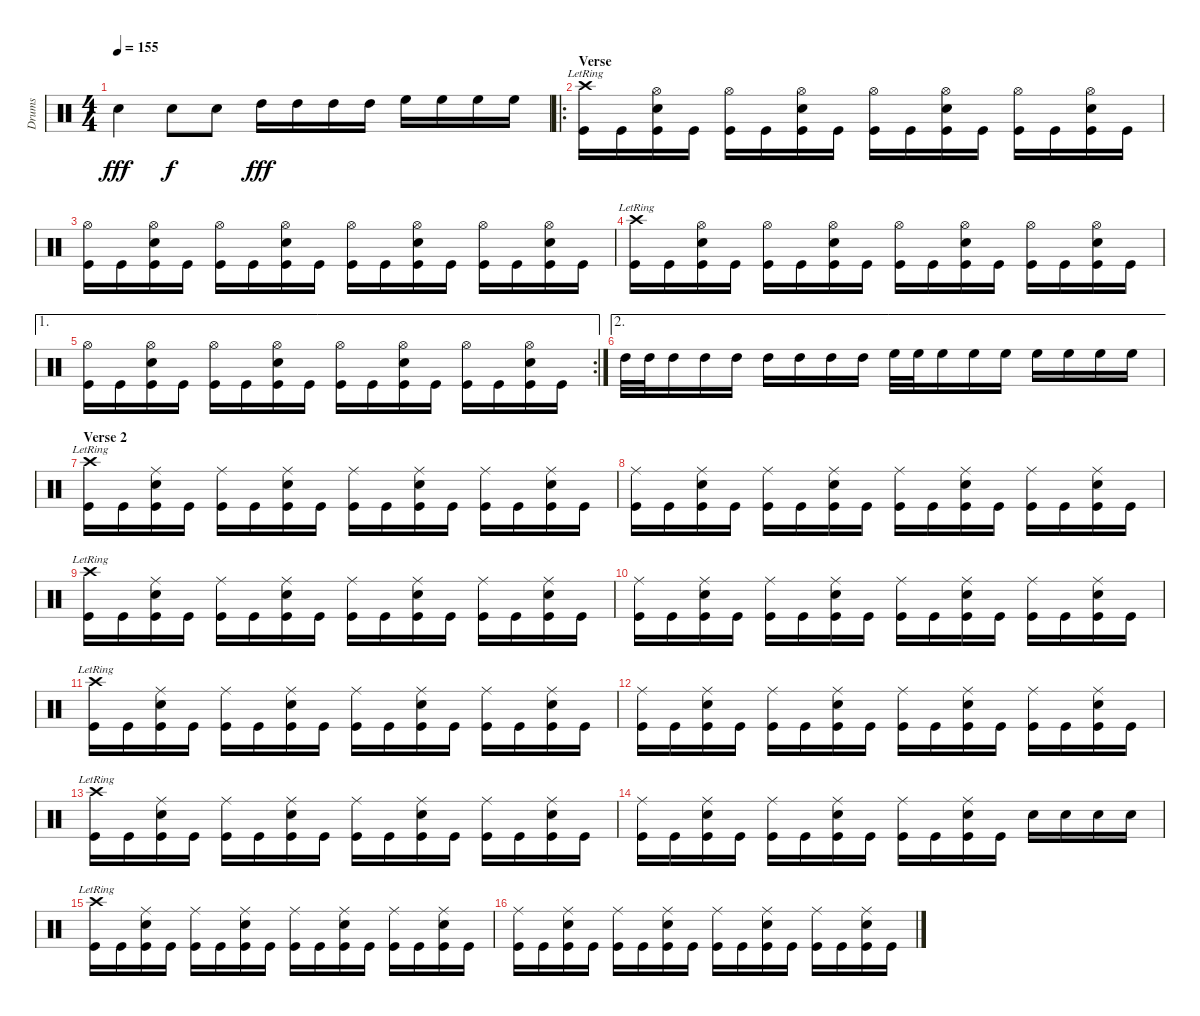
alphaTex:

\track ("Drums" "Drums") {instrument percussion}
\staff {score}
\articulation defaults
\ts (4 4)
\tempo 155
\clef neutral
\ks c "Snare (hit) 2".4{dy fff} "Snare (hit) 2".8{dy f} "Snare (hit) 2".8 "High Tom (hit)".16{dy fff balance 3} "High Tom (hit)".16 "High Tom (hit)".16 "High Tom (hit)".16 "High Floor Tom (hit)".16{balance 13} "High Floor Tom (hit)".16 "High Floor Tom (hit)".16 "High Floor Tom (hit)".16
|
\ro
\section ("" "Verse")
("Crash high (hit)"{lr} "Kick (hit)").16{balance 8} "Kick (hit)".16 ("Hi-Hat (open)" "Snare (hit) 2" "Kick (hit)").16 "Kick (hit)".16 ("Hi-Hat (open)" "Kick (hit)").16 "Kick (hit)".16 ("Hi-Hat (open)" "Snare (hit) 2" "Kick (hit)").16 "Kick (hit)".16 ("Hi-Hat (open)" "Kick (hit)").16 "Kick (hit)".16 ("Hi-Hat (open)" "Snare (hit) 2" "Kick (hit)").16 "Kick (hit)".16 ("Hi-Hat (open)" "Kick (hit)").16 "Kick (hit)".16 ("Hi-Hat (open)" "Snare (hit) 2" "Kick (hit)").16 "Kick (hit)".16 |
("Hi-Hat (open)" "Kick (hit)").16 "Kick (hit)".16 ("Hi-Hat (open)" "Snare (hit) 2" "Kick (hit)").16 "Kick (hit)".16 ("Hi-Hat (open)" "Kick (hit)").16 "Kick (hit)".16 ("Hi-Hat (open)" "Snare (hit) 2" "Kick (hit)").16 "Kick (hit)".16 ("Hi-Hat (open)" "Kick (hit)").16 "Kick (hit)".16 ("Hi-Hat (open)" "Snare (hit) 2" "Kick (hit)").16 "Kick (hit)".16 ("Hi-Hat (open)" "Kick (hit)").16 "Kick (hit)".16 ("Hi-Hat (open)" "Snare (hit) 2" "Kick (hit)").16 "Kick (hit)".16 |
("Crash high (hit)"{lr} "Kick (hit)").16 "Kick (hit)".16 ("Hi-Hat (open)" "Snare (hit) 2" "Kick (hit)").16 "Kick (hit)".16 ("Hi-Hat (open)" "Kick (hit)").16 "Kick (hit)".16 ("Hi-Hat (open)" "Snare (hit) 2" "Kick (hit)").16 "Kick (hit)".16 ("Hi-Hat (open)" "Kick (hit)").16 "Kick (hit)".16 ("Hi-Hat (open)" "Snare (hit) 2" "Kick (hit)").16 "Kick (hit)".16 ("Hi-Hat (open)" "Kick (hit)").16 "Kick (hit)".16 ("Hi-Hat (open)" "Snare (hit) 2" "Kick (hit)").16 "Kick (hit)".16 |
\ae 1
\rc 2
("Hi-Hat (open)" "Kick (hit)").16 "Kick (hit)".16 ("Hi-Hat (open)" "Snare (hit) 2" "Kick (hit)").16 "Kick (hit)".16 ("Hi-Hat (open)" "Kick (hit)").16 "Kick (hit)".16 ("Hi-Hat (open)" "Snare (hit) 2" "Kick (hit)").16 "Kick (hit)".16 ("Hi-Hat (open)" "Kick (hit)").16 "Kick (hit)".16 ("Hi-Hat (open)" "Snare (hit) 2" "Kick (hit)").16 "Kick (hit)".16 ("Hi-Hat (open)" "Kick (hit)").16 "Kick (hit)".16 ("Hi-Hat (open)" "Snare (hit) 2" "Kick (hit)").16 "Kick (hit)".16 |
\ae 2 "High Tom (hit)".32{balance 3} "High Tom (hit)".32 "High Tom (hit)".16 "High Tom (hit)".16 "High Tom (hit)".16 "High Tom (hit)".16 "High Tom (hit)".16 "High Tom (hit)".16 "High Tom (hit)".16 "High Floor Tom (hit)".32{balance 13} "High Floor Tom (hit)".32 "High Floor Tom (hit)".16 "High Floor Tom (hit)".16 "High Floor Tom (hit)".16 "High Floor Tom (hit)".16 "High Floor Tom (hit)".16 "High Floor Tom (hit)".16 "High Floor Tom (hit)".16
|
\section ("" "Verse 2")
("Crash high (hit)"{lr} "Kick (hit)").16{balance 8} "Kick (hit)".16 ("Ride (middle)" "Snare (hit) 2" "Kick (hit)").16 "Kick (hit)".16 ("Ride (middle)" "Kick (hit)").16 "Kick (hit)".16 ("Ride (middle)" "Snare (hit) 2" "Kick (hit)").16 "Kick (hit)".16 ("Ride (middle)" "Kick (hit)").16 "Kick (hit)".16 ("Ride (middle)" "Snare (hit) 2" "Kick (hit)").16 "Kick (hit)".16 ("Ride (middle)" "Kick (hit)").16 "Kick (hit)".16 ("Ride (middle)" "Snare (hit) 2" "Kick (hit)").16 "Kick (hit)".16 |
("Ride (middle)" "Kick (hit)").16 "Kick (hit)".16 ("Ride (middle)" "Snare (hit) 2" "Kick (hit)").16 "Kick (hit)".16 ("Ride (middle)" "Kick (hit)").16 "Kick (hit)".16 ("Ride (middle)" "Snare (hit) 2" "Kick (hit)").16 "Kick (hit)".16 ("Ride (middle)" "Kick (hit)").16 "Kick (hit)".16 ("Ride (middle)" "Snare (hit) 2" "Kick (hit)").16 "Kick (hit)".16 ("Ride (middle)" "Kick (hit)").16 "Kick (hit)".16 ("Ride (middle)" "Snare (hit) 2" "Kick (hit)").16 "Kick (hit)".16 |
("Crash high (hit)"{lr} "Kick (hit)").16 "Kick (hit)".16 ("Ride (middle)" "Snare (hit) 2" "Kick (hit)").16 "Kick (hit)".16 ("Ride (middle)" "Kick (hit)").16 "Kick (hit)".16 ("Ride (middle)" "Snare (hit) 2" "Kick (hit)").16 "Kick (hit)".16 ("Ride (middle)" "Kick (hit)").16 "Kick (hit)".16 ("Ride (middle)" "Snare (hit) 2" "Kick (hit)").16 "Kick (hit)".16 ("Ride (middle)" "Kick (hit)").16 "Kick (hit)".16 ("Ride (middle)" "Snare (hit) 2" "Kick (hit)").16 "Kick (hit)".16 |
("Ride (middle)" "Kick (hit)").16 "Kick (hit)".16 ("Ride (middle)" "Snare (hit) 2" "Kick (hit)").16 "Kick (hit)".16 ("Ride (middle)" "Kick (hit)").16 "Kick (hit)".16 ("Ride (middle)" "Snare (hit) 2" "Kick (hit)").16 "Kick (hit)".16 ("Ride (middle)" "Kick (hit)").16 "Kick (hit)".16 ("Ride (middle)" "Snare (hit) 2" "Kick (hit)").16 "Kick (hit)".16 ("Ride (middle)" "Kick (hit)").16 "Kick (hit)".16 ("Ride (middle)" "Snare (hit) 2" "Kick (hit)").16 "Kick (hit)".16 |
("Crash high (hit)"{lr} "Kick (hit)").16 "Kick (hit)".16 ("Ride (middle)" "Snare (hit) 2" "Kick (hit)").16 "Kick (hit)".16 ("Ride (middle)" "Kick (hit)").16 "Kick (hit)".16 ("Ride (middle)" "Snare (hit) 2" "Kick (hit)").16 "Kick (hit)".16 ("Ride (middle)" "Kick (hit)").16 "Kick (hit)".16 ("Ride (middle)" "Snare (hit) 2" "Kick (hit)").16 "Kick (hit)".16 ("Ride (middle)" "Kick (hit)").16 "Kick (hit)".16 ("Ride (middle)" "Snare (hit) 2" "Kick (hit)").16 "Kick (hit)".16 |
("Ride (middle)" "Kick (hit)").16 "Kick (hit)".16 ("Ride (middle)" "Snare (hit) 2" "Kick (hit)").16 "Kick (hit)".16 ("Ride (middle)" "Kick (hit)").16 "Kick (hit)".16 ("Ride (middle)" "Snare (hit) 2" "Kick (hit)").16 "Kick (hit)".16 ("Ride (middle)" "Kick (hit)").16 "Kick (hit)".16 ("Ride (middle)" "Snare (hit) 2" "Kick (hit)").16 "Kick (hit)".16 ("Ride (middle)" "Kick (hit)").16 "Kick (hit)".16 ("Ride (middle)" "Snare (hit) 2" "Kick (hit)").16 "Kick (hit)".16 |
("Crash high (hit)"{lr} "Kick (hit)").16 "Kick (hit)".16 ("Ride (middle)" "Snare (hit) 2" "Kick (hit)").16 "Kick (hit)".16 ("Ride (middle)" "Kick (hit)").16 "Kick (hit)".16 ("Ride (middle)" "Snare (hit) 2" "Kick (hit)").16 "Kick (hit)".16 ("Ride (middle)" "Kick (hit)").16 "Kick (hit)".16 ("Ride (middle)" "Snare (hit) 2" "Kick (hit)").16 "Kick (hit)".16 ("Ride (middle)" "Kick (hit)").16 "Kick (hit)".16 ("Ride (middle)" "Snare (hit) 2" "Kick (hit)").16 "Kick (hit)".16 |
("Ride (middle)" "Kick (hit)").16 "Kick (hit)".16 ("Ride (middle)" "Snare (hit) 2" "Kick (hit)").16 "Kick (hit)".16 ("Ride (middle)" "Kick (hit)").16 "Kick (hit)".16 ("Ride (middle)" "Snare (hit) 2" "Kick (hit)").16 "Kick (hit)".16 ("Ride (middle)" "Kick (hit)").16 "Kick (hit)".16 ("Ride (middle)" "Snare (hit) 2" "Kick (hit)").16 "Kick (hit)".16 "Snare (hit) 2".16 "Snare (hit) 2".16 "Snare (hit) 2".16 "Snare (hit) 2".16 |
("Crash high (hit)"{lr} "Kick (hit)").16 "Kick (hit)".16 ("Ride (middle)" "Snare (hit) 2" "Kick (hit)").16 "Kick (hit)".16 ("Ride (middle)" "Kick (hit)").16 "Kick (hit)".16 ("Ride (middle)" "Snare (hit) 2" "Kick (hit)").16 "Kick (hit)".16 ("Ride (middle)" "Kick (hit)").16 "Kick (hit)".16 ("Ride (middle)" "Snare (hit) 2" "Kick (hit)").16 "Kick (hit)".16 ("Ride (middle)" "Kick (hit)").16 "Kick (hit)".16 ("Ride (middle)" "Snare (hit) 2" "Kick (hit)").16 "Kick (hit)".16 |
("Ride (middle)" "Kick (hit)").16 "Kick (hit)".16 ("Ride (middle)" "Snare (hit) 2" "Kick (hit)").16 "Kick (hit)".16 ("Ride (middle)" "Kick (hit)").16 "Kick (hit)".16 ("Ride (middle)" "Snare (hit) 2" "Kick (hit)").16 "Kick (hit)".16 ("Ride (middle)" "Kick (hit)").16 "Kick (hit)".16 ("Ride (middle)" "Snare (hit) 2" "Kick (hit)").16 "Kick (hit)".16 ("Ride (middle)" "Kick (hit)").16 "Kick (hit)".16 ("Ride (middle)" "Snare (hit) 2" "Kick (hit)").16 "Kick (hit)".16
